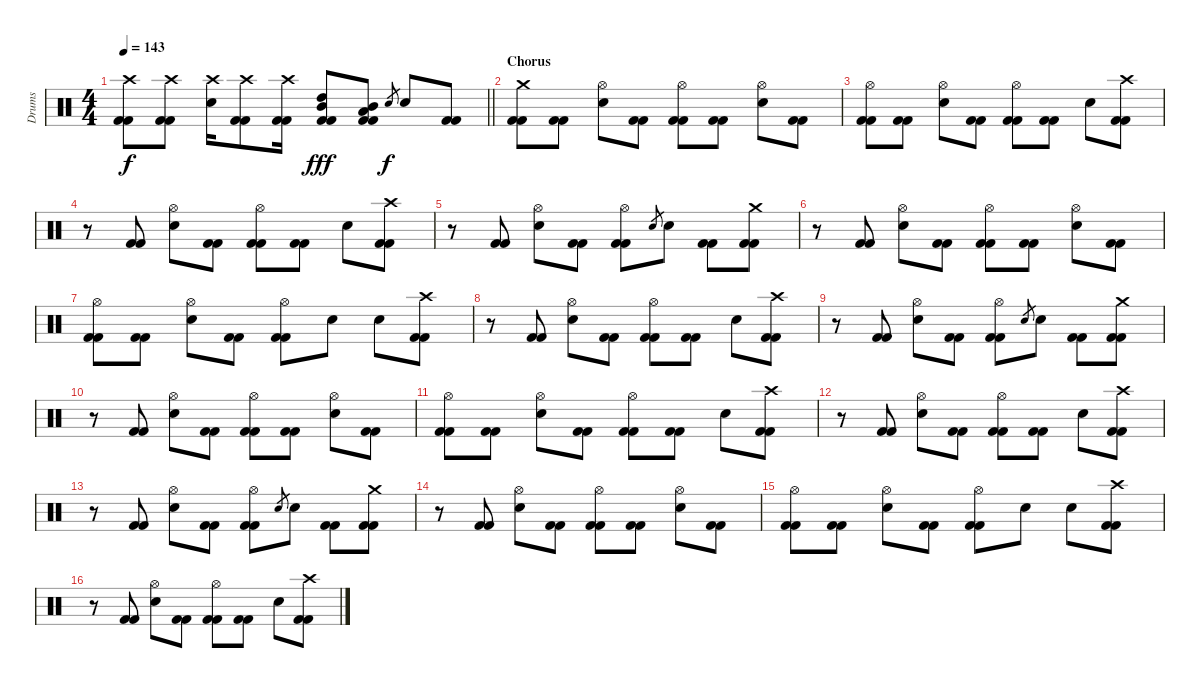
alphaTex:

\track ("Drums" "Drums") {instrument percussion}
\staff {score}
\articulation defaults
\ts (4 4)
\tempo 143
\clef neutral
\barLineRight lightlight
\ks c
("Crash high (hit)" "Kick (hit) 2" "Kick (hit) 2").8{dy f} ("Crash high (hit)" "Kick (hit) 2" "Kick (hit) 2").8 ("Crash high (hit)" "Electric Snare (hit)").16 ("Crash high (hit)" "Kick (hit) 2" "Kick (hit) 2").8 ("Crash high (hit)" "Kick (hit) 2" "Kick (hit) 2").16 ("Mid Tom (hit)" "High Tom (hit)" "Kick (hit) 2" "Kick (hit) 2").8{dy fff} ("Low Tom (hit)" "Mid Tom (hit)" "Kick (hit) 2" "Kick (hit) 2").8 "Electric Snare (hit)".8{gr dy f} "Electric Snare (hit)".8 ("Kick (hit) 2" "Kick (hit) 2").8 |
\section ("" "Chorus")
("Crash medium (hit)" "Kick (hit) 2" "Kick (hit) 2").8 ("Kick (hit) 2" "Kick (hit) 2").8 ("Hi-Hat (open)" "Electric Snare (hit)").8 ("Kick (hit) 2" "Kick (hit) 2").8 ("Hi-Hat (open)" "Kick (hit) 2" "Kick (hit) 2").8 ("Kick (hit) 2" "Kick (hit) 2").8 ("Hi-Hat (open)" "Electric Snare (hit)").8 ("Kick (hit) 2" "Kick (hit) 2").8 |
("Hi-Hat (open)" "Kick (hit) 2" "Kick (hit) 2").8 ("Kick (hit) 2" "Kick (hit) 2").8 ("Hi-Hat (open)" "Electric Snare (hit)").8 ("Kick (hit) 2" "Kick (hit) 2").8 ("Hi-Hat (open)" "Kick (hit) 2" "Kick (hit) 2").8 ("Kick (hit) 2" "Kick (hit) 2").8 "Electric Snare (hit)".8 ("Crash high (hit)" "Kick (hit) 2" "Kick (hit) 2").8 |
r.8 ("Kick (hit) 2" "Kick (hit) 2").8 ("Hi-Hat (open)" "Electric Snare (hit)").8 ("Kick (hit) 2" "Kick (hit) 2").8 ("Hi-Hat (open)" "Kick (hit) 2" "Kick (hit) 2").8 ("Kick (hit) 2" "Kick (hit) 2").8 "Electric Snare (hit)".8 ("Crash high (hit)" "Kick (hit) 2" "Kick (hit) 2").8 |
r.8 ("Kick (hit) 2" "Kick (hit) 2").8 ("Hi-Hat (open)" "Electric Snare (hit)").8 ("Kick (hit) 2" "Kick (hit) 2").8 ("Hi-Hat (open)" "Kick (hit) 2" "Kick (hit) 2").8 "Electric Snare (hit)".8{gr} "Electric Snare (hit)".8 ("Kick (hit) 2" "Kick (hit) 2").8 ("Crash medium (hit)" "Kick (hit) 2" "Kick (hit) 2").8 |
r.8 ("Kick (hit) 2" "Kick (hit) 2").8 ("Hi-Hat (open)" "Electric Snare (hit)").8 ("Kick (hit) 2" "Kick (hit) 2").8 ("Hi-Hat (open)" "Kick (hit) 2" "Kick (hit) 2").8 ("Kick (hit) 2" "Kick (hit) 2").8 ("Hi-Hat (open)" "Electric Snare (hit)").8 ("Kick (hit) 2" "Kick (hit) 2").8 |
("Hi-Hat (open)" "Kick (hit) 2" "Kick (hit) 2").8 ("Kick (hit) 2" "Kick (hit) 2").8 ("Hi-Hat (open)" "Electric Snare (hit)").8 ("Kick (hit) 2" "Kick (hit) 2").8 ("Hi-Hat (open)" "Kick (hit) 2" "Kick (hit) 2").8 "Electric Snare (hit)".8 "Electric Snare (hit)".8 ("Crash high (hit)" "Kick (hit) 2" "Kick (hit) 2").8 |
r.8 ("Kick (hit) 2" "Kick (hit) 2").8 ("Hi-Hat (open)" "Electric Snare (hit)").8 ("Kick (hit) 2" "Kick (hit) 2").8 ("Hi-Hat (open)" "Kick (hit) 2" "Kick (hit) 2").8 ("Kick (hit) 2" "Kick (hit) 2").8 "Electric Snare (hit)".8 ("Crash high (hit)" "Kick (hit) 2" "Kick (hit) 2").8 |
r.8 ("Kick (hit) 2" "Kick (hit) 2").8 ("Hi-Hat (open)" "Electric Snare (hit)").8 ("Kick (hit) 2" "Kick (hit) 2").8 ("Hi-Hat (open)" "Kick (hit) 2" "Kick (hit) 2").8 "Electric Snare (hit)".8{gr} "Electric Snare (hit)".8 ("Kick (hit) 2" "Kick (hit) 2").8 ("Crash medium (hit)" "Kick (hit) 2" "Kick (hit) 2").8 |
r.8 ("Kick (hit) 2" "Kick (hit) 2").8 ("Hi-Hat (open)" "Electric Snare (hit)").8 ("Kick (hit) 2" "Kick (hit) 2").8 ("Hi-Hat (open)" "Kick (hit) 2" "Kick (hit) 2").8 ("Kick (hit) 2" "Kick (hit) 2").8 ("Hi-Hat (open)" "Electric Snare (hit)").8 ("Kick (hit) 2" "Kick (hit) 2").8 |
("Hi-Hat (open)" "Kick (hit) 2" "Kick (hit) 2").8 ("Kick (hit) 2" "Kick (hit) 2").8 ("Hi-Hat (open)" "Electric Snare (hit)").8 ("Kick (hit) 2" "Kick (hit) 2").8 ("Hi-Hat (open)" "Kick (hit) 2" "Kick (hit) 2").8 ("Kick (hit) 2" "Kick (hit) 2").8 "Electric Snare (hit)".8 ("Crash high (hit)" "Kick (hit) 2" "Kick (hit) 2").8 |
r.8 ("Kick (hit) 2" "Kick (hit) 2").8 ("Hi-Hat (open)" "Electric Snare (hit)").8 ("Kick (hit) 2" "Kick (hit) 2").8 ("Hi-Hat (open)" "Kick (hit) 2" "Kick (hit) 2").8 ("Kick (hit) 2" "Kick (hit) 2").8 "Electric Snare (hit)".8 ("Crash high (hit)" "Kick (hit) 2" "Kick (hit) 2").8 |
r.8 ("Kick (hit) 2" "Kick (hit) 2").8 ("Hi-Hat (open)" "Electric Snare (hit)").8 ("Kick (hit) 2" "Kick (hit) 2").8 ("Hi-Hat (open)" "Kick (hit) 2" "Kick (hit) 2").8 "Electric Snare (hit)".8{gr} "Electric Snare (hit)".8 ("Kick (hit) 2" "Kick (hit) 2").8 ("Crash medium (hit)" "Kick (hit) 2" "Kick (hit) 2").8 |
r.8 ("Kick (hit) 2" "Kick (hit) 2").8 ("Hi-Hat (open)" "Electric Snare (hit)").8 ("Kick (hit) 2" "Kick (hit) 2").8 ("Hi-Hat (open)" "Kick (hit) 2" "Kick (hit) 2").8 ("Kick (hit) 2" "Kick (hit) 2").8 ("Hi-Hat (open)" "Electric Snare (hit)").8 ("Kick (hit) 2" "Kick (hit) 2").8 |
("Hi-Hat (open)" "Kick (hit) 2" "Kick (hit) 2").8 ("Kick (hit) 2" "Kick (hit) 2").8 ("Hi-Hat (open)" "Electric Snare (hit)").8 ("Kick (hit) 2" "Kick (hit) 2").8 ("Hi-Hat (open)" "Kick (hit) 2" "Kick (hit) 2").8 "Electric Snare (hit)".8 "Electric Snare (hit)".8 ("Crash high (hit)" "Kick (hit) 2" "Kick (hit) 2").8 |
r.8 ("Kick (hit) 2" "Kick (hit) 2").8 ("Hi-Hat (open)" "Electric Snare (hit)").8 ("Kick (hit) 2" "Kick (hit) 2").8 ("Hi-Hat (open)" "Kick (hit) 2" "Kick (hit) 2").8 ("Kick (hit) 2" "Kick (hit) 2").8 "Electric Snare (hit)".8 ("Crash high (hit)" "Kick (hit) 2" "Kick (hit) 2").8
